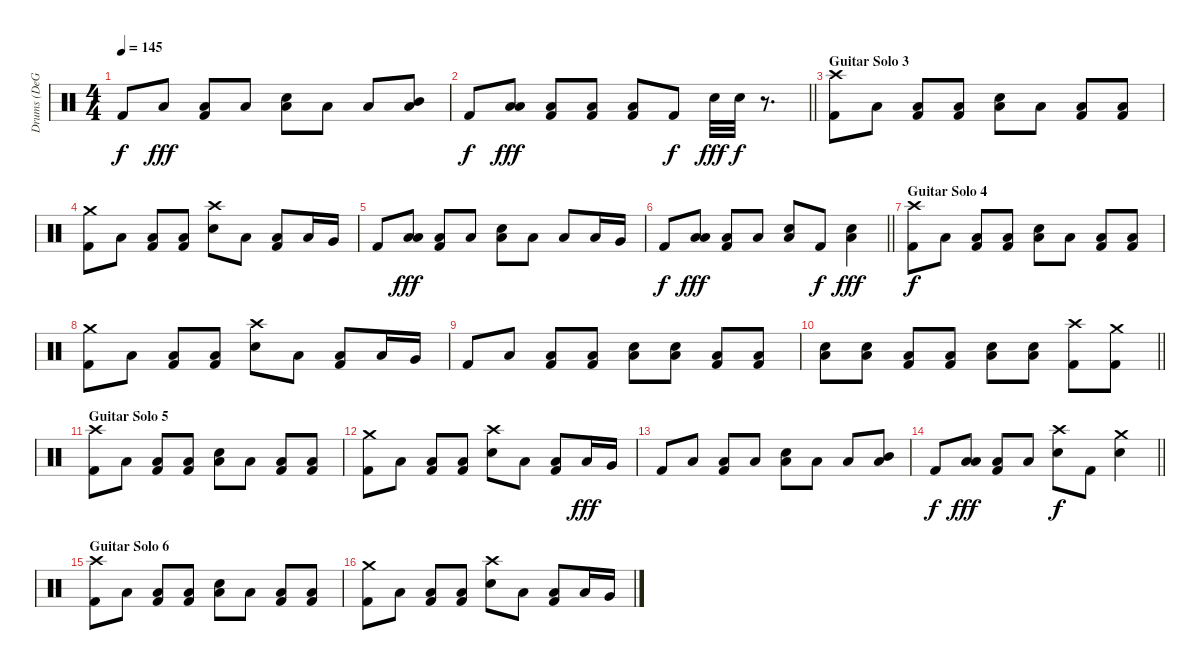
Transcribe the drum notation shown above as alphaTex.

\track ("Drums (DeGrasso)" "Drums (DeG") {instrument percussion}
\staff {score}
\articulation defaults
\ts (4 4)
\tempo 145
\clef neutral
\ks c "Kick (hit) 2".8{dy f} "Low Floor Tom (hit)".8{dy fff}
("Low Floor Tom (hit)" "Kick (hit) 2").8 "Low Floor Tom (hit)".8 ("Low Floor Tom (hit)" "Snare (hit) 2").8 "Low Floor Tom (hit)".8 "Low Floor Tom (hit)".8 ("Low Floor Tom (hit)" "Mid Tom (hit)").8 |
\barLineRight lightlight "Kick (hit) 2".8{dy f}
("Low Floor Tom (hit)" "Low Tom (hit)").8{dy fff} ("Low Floor Tom (hit)" "Kick (hit) 2").8 ("Low Floor Tom (hit)" "Kick (hit) 2").8 ("Low Floor Tom (hit)" "Kick (hit) 2").8 "Kick (hit) 2".8{dy f} "Snare (hit) 2".32{dy fff} "Snare (hit) 2".32{dy f} r.8{d} |
\section ("" "Guitar Solo 3")
("Crash high (hit)" "Kick (hit) 2").8 "Low Floor Tom (hit)".8 ("Low Floor Tom (hit)" "Kick (hit) 2").8 ("Low Floor Tom (hit)" "Kick (hit) 2").8 ("Low Floor Tom (hit)" "Snare (hit) 2").8 "Low Floor Tom (hit)".8 ("Low Floor Tom (hit)" "Kick (hit) 2").8 ("Low Floor Tom (hit)" "Kick (hit) 2").8 |
("Crash medium (hit)" "Kick (hit) 2").8 "Low Floor Tom (hit)".8 ("Low Floor Tom (hit)" "Kick (hit) 2").8 ("Low Floor Tom (hit)" "Kick (hit) 2").8 ("Crash high (hit)" "Snare (hit) 2").8 "Low Floor Tom (hit)".8 ("Low Floor Tom (hit)" "Kick (hit) 2").8 "Low Tom (hit)".16 "Very Low Tom (hit)".16 |
"Kick (hit) 2".8 ("Low Floor Tom (hit)" "Low Tom (hit)").8{dy fff} ("Low Floor Tom (hit)" "Kick (hit) 2").8 "Low Floor Tom (hit)".8 ("Low Floor Tom (hit)" "Snare (hit) 2").8 "Low Floor Tom (hit)".8 "Low Floor Tom (hit)".8 "Low Tom (hit)".16 "Very Low Tom (hit)".16 |
\barLineRight lightlight "Kick (hit) 2".8{dy f}
("Low Tom (hit)" "Low Floor Tom (hit)").8{dy fff} ("Low Floor Tom (hit)" "Kick (hit) 2").8 "Low Floor Tom (hit)".8 ("Low Floor Tom (hit)" "Snare (hit) 2").8 "Kick (hit) 2".8{dy f} ("Low Floor Tom (hit)" "Snare (hit) 2").4{dy fff} |
\section ("" "Guitar Solo 4")
("Crash high (hit)" "Kick (hit) 2").8{dy f} "Low Floor Tom (hit)".8 ("Low Floor Tom (hit)" "Kick (hit) 2").8 ("Low Floor Tom (hit)" "Kick (hit) 2").8 ("Low Floor Tom (hit)" "Snare (hit) 2").8 "Low Floor Tom (hit)".8 ("Low Floor Tom (hit)" "Kick (hit) 2").8 ("Low Floor Tom (hit)" "Kick (hit) 2").8 |
("Crash medium (hit)" "Kick (hit) 2").8 "Low Floor Tom (hit)".8 ("Low Floor Tom (hit)" "Kick (hit) 2").8 ("Low Floor Tom (hit)" "Kick (hit) 2").8 ("Crash high (hit)" "Snare (hit) 2").8 "Low Floor Tom (hit)".8 ("Low Floor Tom (hit)" "Kick (hit) 2").8 "Low Tom (hit)".16 "Very Low Tom (hit)".16 |
"Kick (hit) 2".8 "Low Floor Tom (hit)".8 ("Low Floor Tom (hit)" "Kick (hit) 2").8 ("Low Floor Tom (hit)" "Kick (hit) 2").8 ("Low Floor Tom (hit)" "Snare (hit) 2").8 ("Low Floor Tom (hit)" "Snare (hit) 2").8 ("Low Floor Tom (hit)" "Kick (hit) 2").8 ("Low Floor Tom (hit)" "Kick (hit) 2").8 |
\barLineRight lightlight
("Low Floor Tom (hit)" "Snare (hit) 2").8 ("Low Floor Tom (hit)" "Snare (hit) 2").8 ("Low Floor Tom (hit)" "Kick (hit) 2").8 ("Low Floor Tom (hit)" "Kick (hit) 2").8 ("Low Floor Tom (hit)" "Snare (hit) 2").8 ("Low Floor Tom (hit)" "Snare (hit) 2").8 ("Crash high (hit)" "Kick (hit) 2").8 ("Crash medium (hit)" "Kick (hit) 2").8 |
\section ("" "Guitar Solo 5")
("Crash high (hit)" "Kick (hit) 2").8 "Low Floor Tom (hit)".8 ("Low Floor Tom (hit)" "Kick (hit) 2").8 ("Low Floor Tom (hit)" "Kick (hit) 2").8 ("Low Floor Tom (hit)" "Snare (hit) 2").8 "Low Floor Tom (hit)".8 ("Low Floor Tom (hit)" "Kick (hit) 2").8 ("Low Floor Tom (hit)" "Kick (hit) 2").8 |
("Crash medium (hit)" "Kick (hit) 2").8 "Low Floor Tom (hit)".8 ("Low Floor Tom (hit)" "Kick (hit) 2").8 ("Low Floor Tom (hit)" "Kick (hit) 2").8 ("Crash high (hit)" "Snare (hit) 2").8 "Low Floor Tom (hit)".8 ("Low Floor Tom (hit)" "Kick (hit) 2").8 "Low Tom (hit)".16{dy fff} "Very Low Tom (hit)".16 |
"Kick (hit) 2".8 "Low Floor Tom (hit)".8 ("Low Floor Tom (hit)" "Kick (hit) 2").8 "Low Floor Tom (hit)".8 ("Low Floor Tom (hit)" "Snare (hit) 2").8 "Low Floor Tom (hit)".8 "Low Floor Tom (hit)".8 ("Low Floor Tom (hit)" "Mid Tom (hit)").8 |
\barLineRight lightlight "Kick (hit) 2".8{dy f}
("Low Floor Tom (hit)" "Low Tom (hit)").8{dy fff} ("Low Floor Tom (hit)" "Kick (hit) 2").8 "Low Floor Tom (hit)".8 ("Crash high (hit)" "Snare (hit) 2").8{dy f} "Kick (hit) 2".8 ("Crash medium (hit)" "Snare (hit) 2").4 |
\section ("" "Guitar Solo 6")
("Crash high (hit)" "Kick (hit) 2").8 "Low Floor Tom (hit)".8 ("Low Floor Tom (hit)" "Kick (hit) 2").8 ("Low Floor Tom (hit)" "Kick (hit) 2").8 ("Low Floor Tom (hit)" "Snare (hit) 2").8 "Low Floor Tom (hit)".8 ("Low Floor Tom (hit)" "Kick (hit) 2").8 ("Low Floor Tom (hit)" "Kick (hit) 2").8 |
("Crash medium (hit)" "Kick (hit) 2").8 "Low Floor Tom (hit)".8 ("Low Floor Tom (hit)" "Kick (hit) 2").8 ("Low Floor Tom (hit)" "Kick (hit) 2").8 ("Crash high (hit)" "Snare (hit) 2").8 "Low Floor Tom (hit)".8 ("Low Floor Tom (hit)" "Kick (hit) 2").8 "Low Tom (hit)".16 "Very Low Tom (hit)".16
